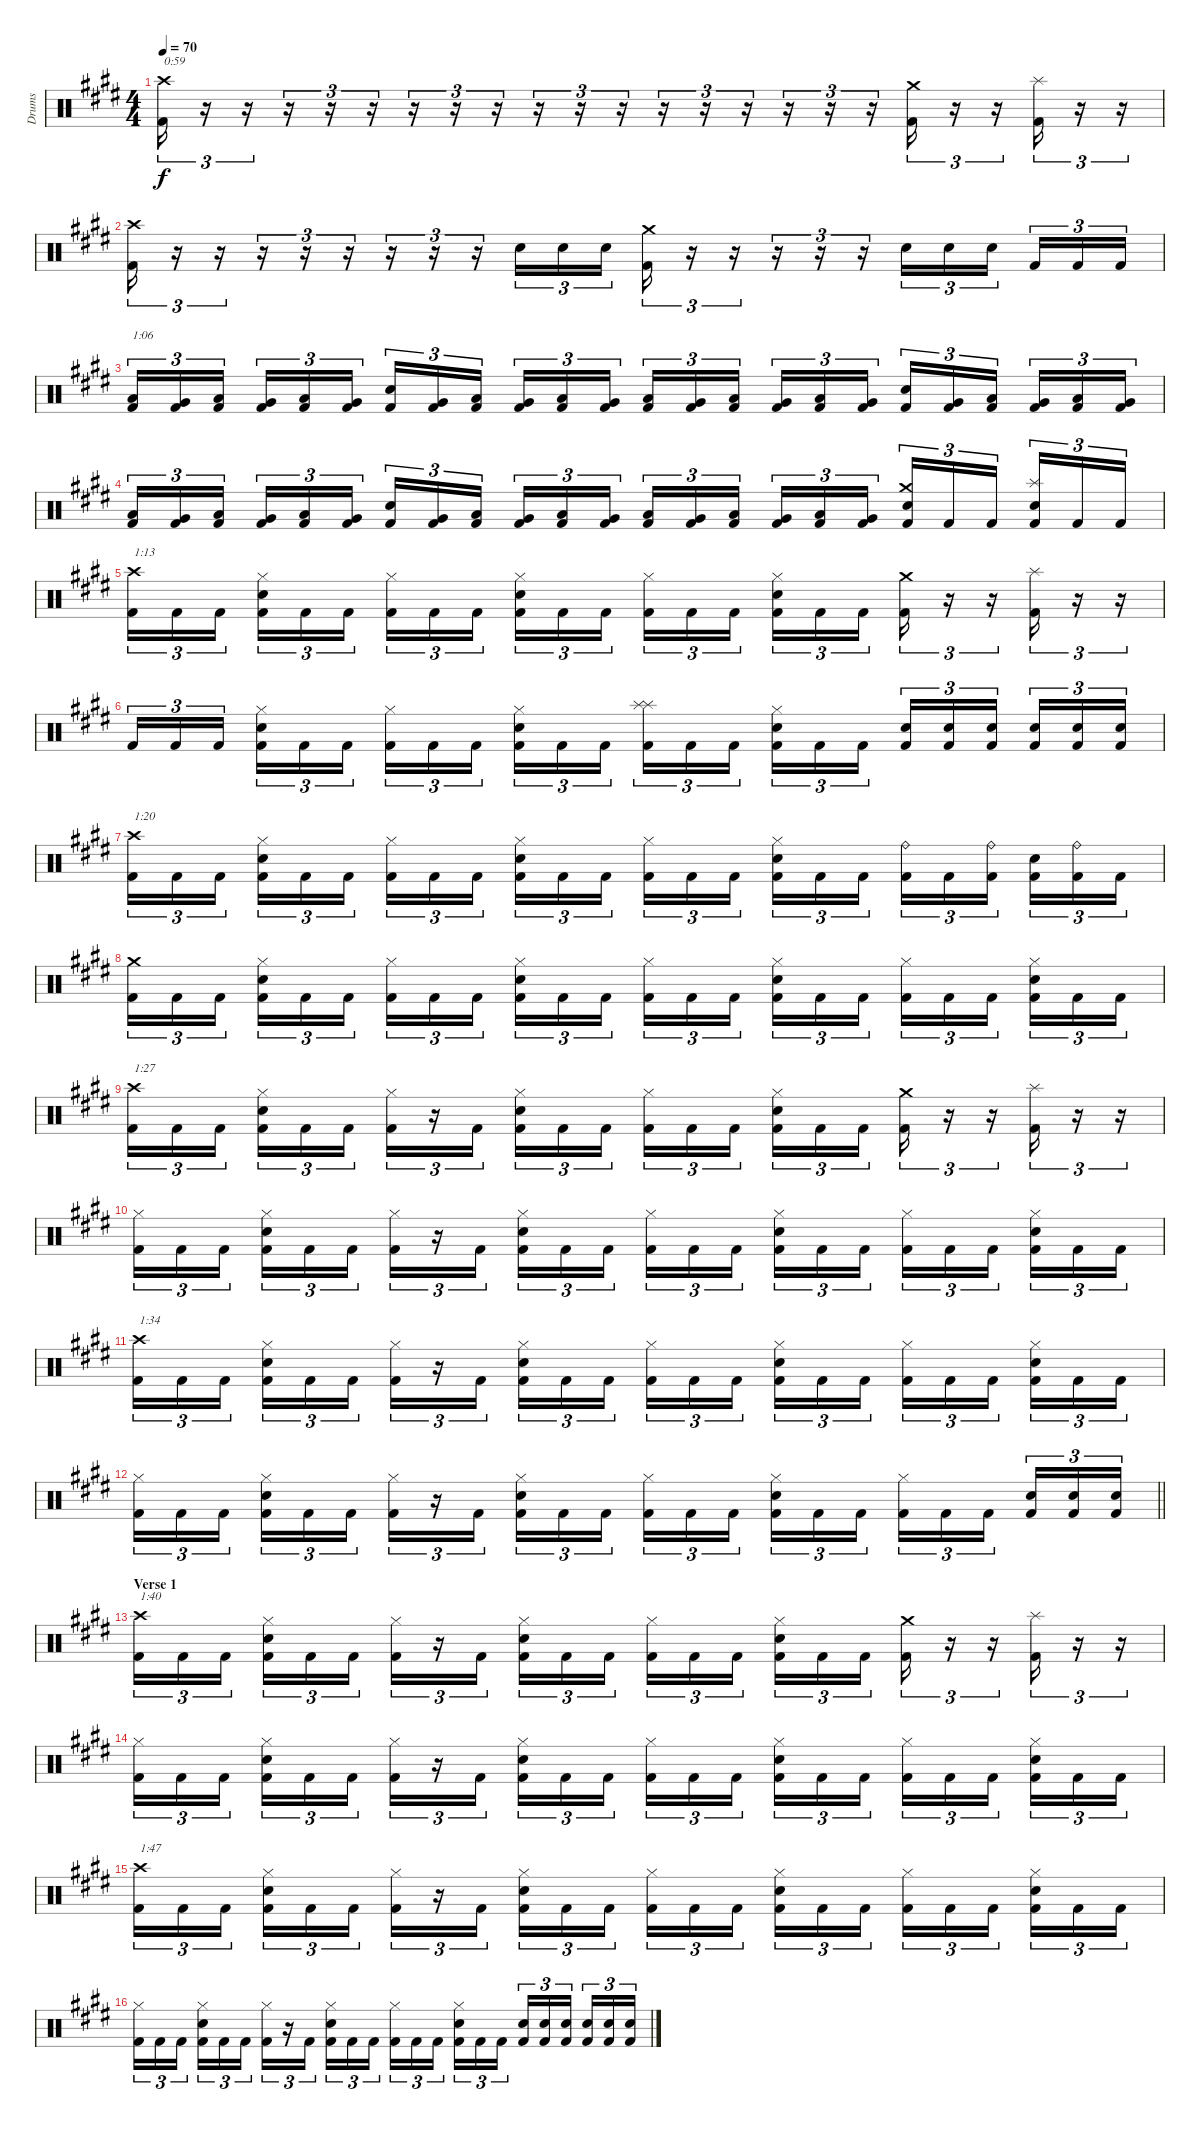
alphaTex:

\track ("Drums" "Drums") {instrument percussion}
\staff {score}
\articulation defaults
\ts (4 4)
\tempo 70
\clef neutral
\ks c#minor
("Crash high (hit)" "Kick (hit) 2").16{tu (3 2) txt "0:59" dy f} r.16{tu (3 2)} r.16{tu (3 2)} r.16{tu (3 2)} r.16{tu (3 2)} r.16{tu (3 2)} r.16{tu (3 2)} r.16{tu (3 2)} r.16{tu (3 2)} r.16{tu (3 2)} r.16{tu (3 2)} r.16{tu (3 2)} r.16{tu (3 2)} r.16{tu (3 2)} r.16{tu (3 2)} r.16{tu (3 2)} r.16{tu (3 2)} r.16{tu (3 2)} ("Crash medium (hit)" "Kick (hit) 2").16{tu (3 2)} r.16{tu (3 2)} r.16{tu (3 2)} ("Splash (hit)" "Kick (hit) 2").16{tu (3 2)} r.16{tu (3 2)} r.16{tu (3 2)} |
("Crash high (hit)" "Kick (hit) 2").16{tu (3 2)} r.16{tu (3 2)} r.16{tu (3 2)} r.16{tu (3 2)} r.16{tu (3 2)} r.16{tu (3 2)} r.16{tu (3 2)} r.16{tu (3 2)} r.16{tu (3 2)} "Snare (hit) 2".16{tu (3 2)} "Snare (hit) 2".16{tu (3 2)} "Snare (hit) 2".16{tu (3 2)} ("Crash medium (hit)" "Kick (hit) 2").16{tu (3 2)} r.16{tu (3 2)} r.16{tu (3 2)} r.16{tu (3 2)} r.16{tu (3 2)} r.16{tu (3 2)} "Snare (hit) 2".16{tu (3 2)} "Snare (hit) 2".16{tu (3 2)} "Snare (hit) 2".16{tu (3 2) beam splitsecondary} "Kick (hit) 2".16{tu (3 2)} "Kick (hit) 2".16{tu (3 2)} "Kick (hit) 2".16{tu (3 2)} |
("Low Floor Tom (hit)" "Kick (hit) 2").16{tu (3 2) txt "1:06"} ("Very Low Tom (hit)" "Kick (hit) 2").16{tu (3 2)} ("Low Floor Tom (hit)" "Kick (hit) 2").16{tu (3 2) beam splitsecondary} ("Very Low Tom (hit)" "Kick (hit) 2").16{tu (3 2)} ("Low Floor Tom (hit)" "Kick (hit) 2").16{tu (3 2)} ("Very Low Tom (hit)" "Kick (hit) 2").16{tu (3 2)} ("Snare (hit) 2" "Kick (hit) 2").16{tu (3 2)} ("Very Low Tom (hit)" "Kick (hit) 2").16{tu (3 2)} ("Low Floor Tom (hit)" "Kick (hit) 2").16{tu (3 2) beam splitsecondary} ("Very Low Tom (hit)" "Kick (hit) 2").16{tu (3 2)} ("Low Floor Tom (hit)" "Kick (hit) 2").16{tu (3 2)} ("Very Low Tom (hit)" "Kick (hit) 2").16{tu (3 2)} ("Low Floor Tom (hit)" "Kick (hit) 2").16{tu (3 2)} ("Very Low Tom (hit)" "Kick (hit) 2").16{tu (3 2)} ("Low Floor Tom (hit)" "Kick (hit) 2").16{tu (3 2) beam splitsecondary} ("Very Low Tom (hit)" "Kick (hit) 2").16{tu (3 2)} ("Low Floor Tom (hit)" "Kick (hit) 2").16{tu (3 2)} ("Very Low Tom (hit)" "Kick (hit) 2").16{tu (3 2)} ("Snare (hit) 2" "Kick (hit) 2").16{tu (3 2)} ("Very Low Tom (hit)" "Kick (hit) 2").16{tu (3 2)} ("Low Floor Tom (hit)" "Kick (hit) 2").16{tu (3 2) beam splitsecondary} ("Very Low Tom (hit)" "Kick (hit) 2").16{tu (3 2)} ("Low Floor Tom (hit)" "Kick (hit) 2").16{tu (3 2)} ("Very Low Tom (hit)" "Kick (hit) 2").16{tu (3 2)} |
("Low Floor Tom (hit)" "Kick (hit) 2").16{tu (3 2)} ("Very Low Tom (hit)" "Kick (hit) 2").16{tu (3 2)} ("Low Floor Tom (hit)" "Kick (hit) 2").16{tu (3 2) beam splitsecondary} ("Very Low Tom (hit)" "Kick (hit) 2").16{tu (3 2)} ("Low Floor Tom (hit)" "Kick (hit) 2").16{tu (3 2)} ("Very Low Tom (hit)" "Kick (hit) 2").16{tu (3 2)} ("Snare (hit) 2" "Kick (hit) 2").16{tu (3 2)} ("Very Low Tom (hit)" "Kick (hit) 2").16{tu (3 2)} ("Low Floor Tom (hit)" "Kick (hit) 2").16{tu (3 2) beam splitsecondary} ("Very Low Tom (hit)" "Kick (hit) 2").16{tu (3 2)} ("Low Floor Tom (hit)" "Kick (hit) 2").16{tu (3 2)} ("Very Low Tom (hit)" "Kick (hit) 2").16{tu (3 2)} ("Low Floor Tom (hit)" "Kick (hit) 2").16{tu (3 2)} ("Very Low Tom (hit)" "Kick (hit) 2").16{tu (3 2)} ("Low Floor Tom (hit)" "Kick (hit) 2").16{tu (3 2) beam splitsecondary} ("Very Low Tom (hit)" "Kick (hit) 2").16{tu (3 2)} ("Low Floor Tom (hit)" "Kick (hit) 2").16{tu (3 2)} ("Very Low Tom (hit)" "Kick (hit) 2").16{tu (3 2)} ("Crash medium (hit)" "Snare (hit) 2" "Kick (hit) 2").16{tu (3 2)} "Kick (hit) 2".16{tu (3 2)} "Kick (hit) 2".16{tu (3 2) beam splitsecondary} ("Splash (hit)" "Snare (hit) 2" "Kick (hit) 2").16{tu (3 2)} "Kick (hit) 2".16{tu (3 2)} "Kick (hit) 2".16{tu (3 2)} |
("Crash high (hit)" "Kick (hit) 2").16{tu (3 2) txt "1:13"} "Kick (hit) 2".16{tu (3 2)} "Kick (hit) 2".16{tu (3 2) beam splitsecondary} ("Hi-Hat (closed)" "Snare (hit) 2" "Kick (hit) 2").16{tu (3 2)} "Kick (hit) 2".16{tu (3 2)} "Kick (hit) 2".16{tu (3 2)} ("Hi-Hat (closed)" "Kick (hit) 2").16{tu (3 2)} "Kick (hit) 2".16{tu (3 2)} "Kick (hit) 2".16{tu (3 2) beam splitsecondary} ("Hi-Hat (closed)" "Snare (hit) 2" "Kick (hit) 2").16{tu (3 2)} "Kick (hit) 2".16{tu (3 2)} "Kick (hit) 2".16{tu (3 2)} ("Hi-Hat (closed)" "Kick (hit) 2").16{tu (3 2)} "Kick (hit) 2".16{tu (3 2)} "Kick (hit) 2".16{tu (3 2) beam splitsecondary} ("Hi-Hat (closed)" "Snare (hit) 2" "Kick (hit) 2").16{tu (3 2)} "Kick (hit) 2".16{tu (3 2)} "Kick (hit) 2".16{tu (3 2)} ("Crash medium (hit)" "Kick (hit) 2").16{tu (3 2)} r.16{tu (3 2)} r.16{tu (3 2)} ("Splash (hit)" "Kick (hit) 2").16{tu (3 2)} r.16{tu (3 2)} r.16{tu (3 2)} |
"Kick (hit) 2".16{tu (3 2)} "Kick (hit) 2".16{tu (3 2)} "Kick (hit) 2".16{tu (3 2) beam splitsecondary} ("Hi-Hat (closed)" "Snare (hit) 2" "Kick (hit) 2").16{tu (3 2)} "Kick (hit) 2".16{tu (3 2)} "Kick (hit) 2".16{tu (3 2)} ("Hi-Hat (closed)" "Kick (hit) 2").16{tu (3 2)} "Kick (hit) 2".16{tu (3 2)} "Kick (hit) 2".16{tu (3 2) beam splitsecondary} ("Hi-Hat (closed)" "Snare (hit) 2" "Kick (hit) 2").16{tu (3 2)} "Kick (hit) 2".16{tu (3 2)} "Kick (hit) 2".16{tu (3 2)} ("Splash (hit)" "Splash (hit)" "Kick (hit) 2").16{tu (3 2)} "Kick (hit) 2".16{tu (3 2)} "Kick (hit) 2".16{tu (3 2) beam splitsecondary} ("Hi-Hat (closed)" "Snare (hit) 2" "Kick (hit) 2").16{tu (3 2)} "Kick (hit) 2".16{tu (3 2)} "Kick (hit) 2".16{tu (3 2)} ("Snare (hit) 2" "Kick (hit) 2").16{tu (3 2)} ("Snare (hit) 2" "Kick (hit) 2").16{tu (3 2)} ("Snare (hit) 2" "Kick (hit) 2").16{tu (3 2) beam splitsecondary} ("Snare (hit) 2" "Kick (hit) 2").16{tu (3 2)} ("Snare (hit) 2" "Kick (hit) 2").16{tu (3 2)} ("Snare (hit) 2" "Kick (hit) 2").16{tu (3 2)} |
("Crash high (hit)" "Kick (hit) 2").16{tu (3 2) txt "1:20"} "Kick (hit) 2".16{tu (3 2)} "Kick (hit) 2".16{tu (3 2) beam splitsecondary} ("Hi-Hat (closed)" "Snare (hit) 2" "Kick (hit) 2").16{tu (3 2)} "Kick (hit) 2".16{tu (3 2)} "Kick (hit) 2".16{tu (3 2)} ("Hi-Hat (closed)" "Kick (hit) 2").16{tu (3 2)} "Kick (hit) 2".16{tu (3 2)} "Kick (hit) 2".16{tu (3 2) beam splitsecondary} ("Hi-Hat (closed)" "Snare (hit) 2" "Kick (hit) 2").16{tu (3 2)} "Kick (hit) 2".16{tu (3 2)} "Kick (hit) 2".16{tu (3 2)} ("Hi-Hat (closed)" "Kick (hit) 2").16{tu (3 2)} "Kick (hit) 2".16{tu (3 2)} "Kick (hit) 2".16{tu (3 2) beam splitsecondary} ("Hi-Hat (closed)" "Snare (hit) 2" "Kick (hit) 2").16{tu (3 2)} "Kick (hit) 2".16{tu (3 2)} "Kick (hit) 2".16{tu (3 2)} ("Ride (bell)" "Kick (hit) 2").16{tu (3 2)} "Kick (hit) 2".16{tu (3 2)} ("Ride (bell)" "Kick (hit) 2").16{tu (3 2) beam splitsecondary} ("Snare (hit) 2" "Kick (hit) 2").16{tu (3 2)} ("Ride (bell)" "Kick (hit) 2").16{tu (3 2)} "Kick (hit) 2".16{tu (3 2)} |
("Crash medium (hit)" "Kick (hit) 2").16{tu (3 2)} "Kick (hit) 2".16{tu (3 2)} "Kick (hit) 2".16{tu (3 2) beam splitsecondary} ("Hi-Hat (closed)" "Snare (hit) 2" "Kick (hit) 2").16{tu (3 2)} "Kick (hit) 2".16{tu (3 2)} "Kick (hit) 2".16{tu (3 2)} ("Hi-Hat (closed)" "Kick (hit) 2").16{tu (3 2)} "Kick (hit) 2".16{tu (3 2)} "Kick (hit) 2".16{tu (3 2) beam splitsecondary} ("Hi-Hat (closed)" "Snare (hit) 2" "Kick (hit) 2").16{tu (3 2)} "Kick (hit) 2".16{tu (3 2)} "Kick (hit) 2".16{tu (3 2)} ("Hi-Hat (closed)" "Kick (hit) 2").16{tu (3 2)} "Kick (hit) 2".16{tu (3 2)} "Kick (hit) 2".16{tu (3 2) beam splitsecondary} ("Hi-Hat (closed)" "Snare (hit) 2" "Kick (hit) 2").16{tu (3 2)} "Kick (hit) 2".16{tu (3 2)} "Kick (hit) 2".16{tu (3 2)} ("Hi-Hat (closed)" "Kick (hit) 2").16{tu (3 2)} "Kick (hit) 2".16{tu (3 2)} "Kick (hit) 2".16{tu (3 2) beam splitsecondary} ("Hi-Hat (closed)" "Snare (hit) 2" "Kick (hit) 2").16{tu (3 2)} "Kick (hit) 2".16{tu (3 2)} "Kick (hit) 2".16{tu (3 2)} |
("Crash high (hit)" "Kick (hit) 2").16{tu (3 2) txt "1:27"} "Kick (hit) 2".16{tu (3 2)} "Kick (hit) 2".16{tu (3 2) beam splitsecondary} ("Hi-Hat (closed)" "Snare (hit) 2" "Kick (hit) 2").16{tu (3 2)} "Kick (hit) 2".16{tu (3 2)} "Kick (hit) 2".16{tu (3 2)} ("Hi-Hat (closed)" "Kick (hit) 2").16{tu (3 2)} r.16{tu (3 2)} "Kick (hit) 2".16{tu (3 2) beam splitsecondary} ("Hi-Hat (closed)" "Snare (hit) 2" "Kick (hit) 2").16{tu (3 2)} "Kick (hit) 2".16{tu (3 2)} "Kick (hit) 2".16{tu (3 2)} ("Hi-Hat (closed)" "Kick (hit) 2").16{tu (3 2)} "Kick (hit) 2".16{tu (3 2)} "Kick (hit) 2".16{tu (3 2) beam splitsecondary} ("Hi-Hat (closed)" "Snare (hit) 2" "Kick (hit) 2").16{tu (3 2)} "Kick (hit) 2".16{tu (3 2)} "Kick (hit) 2".16{tu (3 2)} ("Crash medium (hit)" "Kick (hit) 2").16{tu (3 2)} r.16{tu (3 2)} r.16{tu (3 2)} ("Splash (hit)" "Kick (hit) 2").16{tu (3 2)} r.16{tu (3 2)} r.16{tu (3 2)} |
("Hi-Hat (closed)" "Kick (hit) 2").16{tu (3 2)} "Kick (hit) 2".16{tu (3 2)} "Kick (hit) 2".16{tu (3 2) beam splitsecondary} ("Hi-Hat (closed)" "Snare (hit) 2" "Kick (hit) 2").16{tu (3 2)} "Kick (hit) 2".16{tu (3 2)} "Kick (hit) 2".16{tu (3 2)} ("Hi-Hat (closed)" "Kick (hit) 2").16{tu (3 2)} r.16{tu (3 2)} "Kick (hit) 2".16{tu (3 2) beam splitsecondary} ("Hi-Hat (closed)" "Snare (hit) 2" "Kick (hit) 2").16{tu (3 2)} "Kick (hit) 2".16{tu (3 2)} "Kick (hit) 2".16{tu (3 2)} ("Hi-Hat (closed)" "Kick (hit) 2").16{tu (3 2)} "Kick (hit) 2".16{tu (3 2)} "Kick (hit) 2".16{tu (3 2) beam splitsecondary} ("Hi-Hat (closed)" "Snare (hit) 2" "Kick (hit) 2").16{tu (3 2)} "Kick (hit) 2".16{tu (3 2)} "Kick (hit) 2".16{tu (3 2)} ("Hi-Hat (closed)" "Kick (hit) 2").16{tu (3 2)} "Kick (hit) 2".16{tu (3 2)} "Kick (hit) 2".16{tu (3 2) beam splitsecondary} ("Hi-Hat (closed)" "Snare (hit) 2" "Kick (hit) 2").16{tu (3 2)} "Kick (hit) 2".16{tu (3 2)} "Kick (hit) 2".16{tu (3 2)} |
("Crash high (hit)" "Kick (hit) 2").16{tu (3 2) txt "1:34"} "Kick (hit) 2".16{tu (3 2)} "Kick (hit) 2".16{tu (3 2) beam splitsecondary} ("Hi-Hat (closed)" "Snare (hit) 2" "Kick (hit) 2").16{tu (3 2)} "Kick (hit) 2".16{tu (3 2)} "Kick (hit) 2".16{tu (3 2)} ("Hi-Hat (closed)" "Kick (hit) 2").16{tu (3 2)} r.16{tu (3 2)} "Kick (hit) 2".16{tu (3 2) beam splitsecondary} ("Hi-Hat (closed)" "Snare (hit) 2" "Kick (hit) 2").16{tu (3 2)} "Kick (hit) 2".16{tu (3 2)} "Kick (hit) 2".16{tu (3 2)} ("Hi-Hat (closed)" "Kick (hit) 2").16{tu (3 2)} "Kick (hit) 2".16{tu (3 2)} "Kick (hit) 2".16{tu (3 2) beam splitsecondary} ("Hi-Hat (closed)" "Snare (hit) 2" "Kick (hit) 2").16{tu (3 2)} "Kick (hit) 2".16{tu (3 2)} "Kick (hit) 2".16{tu (3 2)} ("Hi-Hat (closed)" "Kick (hit) 2").16{tu (3 2)} "Kick (hit) 2".16{tu (3 2)} "Kick (hit) 2".16{tu (3 2) beam splitsecondary} ("Hi-Hat (closed)" "Snare (hit) 2" "Kick (hit) 2").16{tu (3 2)} "Kick (hit) 2".16{tu (3 2)} "Kick (hit) 2".16{tu (3 2)} |
\barLineRight lightlight
("Hi-Hat (closed)" "Kick (hit) 2").16{tu (3 2)} "Kick (hit) 2".16{tu (3 2)} "Kick (hit) 2".16{tu (3 2) beam splitsecondary} ("Hi-Hat (closed)" "Snare (hit) 2" "Kick (hit) 2").16{tu (3 2)} "Kick (hit) 2".16{tu (3 2)} "Kick (hit) 2".16{tu (3 2)} ("Hi-Hat (closed)" "Kick (hit) 2").16{tu (3 2)} r.16{tu (3 2)} "Kick (hit) 2".16{tu (3 2) beam splitsecondary} ("Hi-Hat (closed)" "Snare (hit) 2" "Kick (hit) 2").16{tu (3 2)} "Kick (hit) 2".16{tu (3 2)} "Kick (hit) 2".16{tu (3 2)} ("Hi-Hat (closed)" "Kick (hit) 2").16{tu (3 2)} "Kick (hit) 2".16{tu (3 2)} "Kick (hit) 2".16{tu (3 2) beam splitsecondary} ("Hi-Hat (closed)" "Snare (hit) 2" "Kick (hit) 2").16{tu (3 2)} "Kick (hit) 2".16{tu (3 2)} "Kick (hit) 2".16{tu (3 2)} ("Hi-Hat (closed)" "Kick (hit) 2").16{tu (3 2)} "Kick (hit) 2".16{tu (3 2)} "Kick (hit) 2".16{tu (3 2) beam splitsecondary} ("Snare (hit) 2" "Kick (hit) 2").16{tu (3 2)} ("Snare (hit) 2" "Kick (hit) 2").16{tu (3 2)} ("Snare (hit) 2" "Kick (hit) 2").16{tu (3 2)} |
\section ("" "Verse 1")
("Crash high (hit)" "Kick (hit) 2").16{tu (3 2) txt "1:40"} "Kick (hit) 2".16{tu (3 2)} "Kick (hit) 2".16{tu (3 2) beam splitsecondary} ("Hi-Hat (closed)" "Snare (hit) 2" "Kick (hit) 2").16{tu (3 2)} "Kick (hit) 2".16{tu (3 2)} "Kick (hit) 2".16{tu (3 2)} ("Hi-Hat (closed)" "Kick (hit) 2").16{tu (3 2)} r.16{tu (3 2)} "Kick (hit) 2".16{tu (3 2) beam splitsecondary} ("Hi-Hat (closed)" "Snare (hit) 2" "Kick (hit) 2").16{tu (3 2)} "Kick (hit) 2".16{tu (3 2)} "Kick (hit) 2".16{tu (3 2)} ("Hi-Hat (closed)" "Kick (hit) 2").16{tu (3 2)} "Kick (hit) 2".16{tu (3 2)} "Kick (hit) 2".16{tu (3 2) beam splitsecondary} ("Hi-Hat (closed)" "Snare (hit) 2" "Kick (hit) 2").16{tu (3 2)} "Kick (hit) 2".16{tu (3 2)} "Kick (hit) 2".16{tu (3 2)} ("Crash medium (hit)" "Kick (hit) 2").16{tu (3 2)} r.16{tu (3 2)} r.16{tu (3 2)} ("Splash (hit)" "Kick (hit) 2").16{tu (3 2)} r.16{tu (3 2)} r.16{tu (3 2)} |
("Hi-Hat (closed)" "Kick (hit) 2").16{tu (3 2)} "Kick (hit) 2".16{tu (3 2)} "Kick (hit) 2".16{tu (3 2) beam splitsecondary} ("Hi-Hat (closed)" "Snare (hit) 2" "Kick (hit) 2").16{tu (3 2)} "Kick (hit) 2".16{tu (3 2)} "Kick (hit) 2".16{tu (3 2)} ("Hi-Hat (closed)" "Kick (hit) 2").16{tu (3 2)} r.16{tu (3 2)} "Kick (hit) 2".16{tu (3 2) beam splitsecondary} ("Hi-Hat (closed)" "Snare (hit) 2" "Kick (hit) 2").16{tu (3 2)} "Kick (hit) 2".16{tu (3 2)} "Kick (hit) 2".16{tu (3 2)} ("Hi-Hat (closed)" "Kick (hit) 2").16{tu (3 2)} "Kick (hit) 2".16{tu (3 2)} "Kick (hit) 2".16{tu (3 2) beam splitsecondary} ("Hi-Hat (closed)" "Snare (hit) 2" "Kick (hit) 2").16{tu (3 2)} "Kick (hit) 2".16{tu (3 2)} "Kick (hit) 2".16{tu (3 2)} ("Hi-Hat (closed)" "Kick (hit) 2").16{tu (3 2)} "Kick (hit) 2".16{tu (3 2)} "Kick (hit) 2".16{tu (3 2) beam splitsecondary} ("Hi-Hat (closed)" "Snare (hit) 2" "Kick (hit) 2").16{tu (3 2)} "Kick (hit) 2".16{tu (3 2)} "Kick (hit) 2".16{tu (3 2)} |
("Crash high (hit)" "Kick (hit) 2").16{tu (3 2) txt "1:47"} "Kick (hit) 2".16{tu (3 2)} "Kick (hit) 2".16{tu (3 2) beam splitsecondary} ("Hi-Hat (closed)" "Snare (hit) 2" "Kick (hit) 2").16{tu (3 2)} "Kick (hit) 2".16{tu (3 2)} "Kick (hit) 2".16{tu (3 2)} ("Hi-Hat (closed)" "Kick (hit) 2").16{tu (3 2)} r.16{tu (3 2)} "Kick (hit) 2".16{tu (3 2) beam splitsecondary} ("Hi-Hat (closed)" "Snare (hit) 2" "Kick (hit) 2").16{tu (3 2)} "Kick (hit) 2".16{tu (3 2)} "Kick (hit) 2".16{tu (3 2)} ("Hi-Hat (closed)" "Kick (hit) 2").16{tu (3 2)} "Kick (hit) 2".16{tu (3 2)} "Kick (hit) 2".16{tu (3 2) beam splitsecondary} ("Hi-Hat (closed)" "Snare (hit) 2" "Kick (hit) 2").16{tu (3 2)} "Kick (hit) 2".16{tu (3 2)} "Kick (hit) 2".16{tu (3 2)} ("Hi-Hat (closed)" "Kick (hit) 2").16{tu (3 2)} "Kick (hit) 2".16{tu (3 2)} "Kick (hit) 2".16{tu (3 2) beam splitsecondary} ("Hi-Hat (closed)" "Snare (hit) 2" "Kick (hit) 2").16{tu (3 2)} "Kick (hit) 2".16{tu (3 2)} "Kick (hit) 2".16{tu (3 2)} |
("Hi-Hat (closed)" "Kick (hit) 2").16{tu (3 2)} "Kick (hit) 2".16{tu (3 2)} "Kick (hit) 2".16{tu (3 2) beam splitsecondary} ("Hi-Hat (closed)" "Snare (hit) 2" "Kick (hit) 2").16{tu (3 2)} "Kick (hit) 2".16{tu (3 2)} "Kick (hit) 2".16{tu (3 2)} ("Hi-Hat (closed)" "Kick (hit) 2").16{tu (3 2)} r.16{tu (3 2)} "Kick (hit) 2".16{tu (3 2) beam splitsecondary} ("Hi-Hat (closed)" "Snare (hit) 2" "Kick (hit) 2").16{tu (3 2)} "Kick (hit) 2".16{tu (3 2)} "Kick (hit) 2".16{tu (3 2)} ("Hi-Hat (closed)" "Kick (hit) 2").16{tu (3 2)} "Kick (hit) 2".16{tu (3 2)} "Kick (hit) 2".16{tu (3 2) beam splitsecondary} ("Hi-Hat (closed)" "Snare (hit) 2" "Kick (hit) 2").16{tu (3 2)} "Kick (hit) 2".16{tu (3 2)} "Kick (hit) 2".16{tu (3 2)} ("Snare (hit) 2" "Kick (hit) 2").16{tu (3 2)} ("Snare (hit) 2" "Kick (hit) 2").16{tu (3 2)} ("Snare (hit) 2" "Kick (hit) 2").16{tu (3 2) beam splitsecondary} ("Snare (hit) 2" "Kick (hit) 2").16{tu (3 2)} ("Snare (hit) 2" "Kick (hit) 2").16{tu (3 2)} ("Snare (hit) 2" "Kick (hit) 2").16{tu (3 2)}
